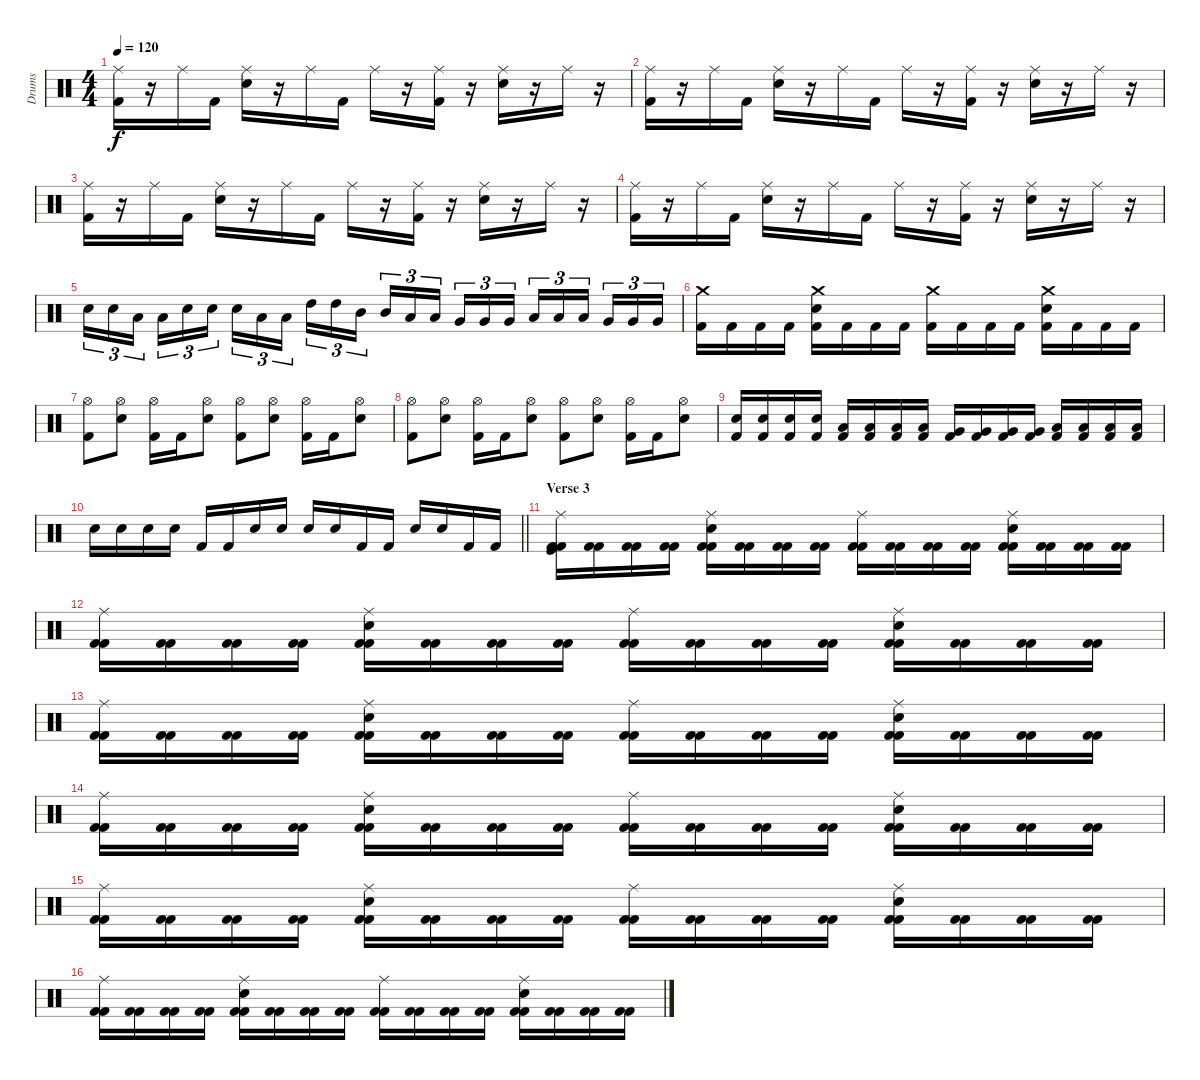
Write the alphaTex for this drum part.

\track ("Drums" "Drums") {instrument percussion}
\staff {score}
\articulation defaults
\ts (4 4)
\tempo 120
\clef neutral
\ks c
("Ride (middle)" "Kick (hit) 2").16{dy f} r.16 "Ride (middle)".16 "Kick (hit) 2".16 ("Ride (middle)" "Electric Snare (hit)").16 r.16 "Ride (middle)".16 "Kick (hit) 2".16 "Ride (middle)".16 r.16 ("Ride (middle)" "Kick (hit) 2").16 r.16 ("Ride (middle)" "Electric Snare (hit)").16 r.16 "Ride (middle)".16 r.16 |
("Ride (middle)" "Kick (hit) 2").16 r.16 "Ride (middle)".16 "Kick (hit) 2".16 ("Ride (middle)" "Electric Snare (hit)").16 r.16 "Ride (middle)".16 "Kick (hit) 2".16 "Ride (middle)".16 r.16 ("Ride (middle)" "Kick (hit) 2").16 r.16 ("Ride (middle)" "Electric Snare (hit)").16 r.16 "Ride (middle)".16 r.16 |
("Ride (middle)" "Kick (hit) 2").16 r.16 "Ride (middle)".16 "Kick (hit) 2".16 ("Ride (middle)" "Electric Snare (hit)").16 r.16 "Ride (middle)".16 "Kick (hit) 2".16 "Ride (middle)".16 r.16 ("Ride (middle)" "Kick (hit) 2").16 r.16 ("Ride (middle)" "Electric Snare (hit)").16 r.16 "Ride (middle)".16 r.16 |
("Ride (middle)" "Kick (hit) 2").16 r.16 "Ride (middle)".16 "Kick (hit) 2".16 ("Ride (middle)" "Electric Snare (hit)").16 r.16 "Ride (middle)".16 "Kick (hit) 2".16 "Ride (middle)".16 r.16 ("Ride (middle)" "Kick (hit) 2").16 r.16 ("Ride (middle)" "Electric Snare (hit)").16 r.16 "Ride (middle)".16 r.16 |
"Electric Snare (hit)".16{tu (3 2)} "Electric Snare (hit)".16{tu (3 2)} "Low Tom (hit)".16{tu (3 2) beam splitsecondary} "Low Tom (hit)".16{tu (3 2)} "Electric Snare (hit)".16{tu (3 2)} "Electric Snare (hit)".16{tu (3 2)} "Electric Snare (hit)".16{tu (3 2)} "Low Tom (hit)".16{tu (3 2)} "Low Tom (hit)".16{tu (3 2) beam splitsecondary} "High Tom (hit)".16{tu (3 2)} "High Tom (hit)".16{tu (3 2)} "Mid Tom (hit)".16{tu (3 2)} "Mid Tom (hit)".16{tu (3 2)} "Low Tom (hit)".16{tu (3 2)} "Low Tom (hit)".16{tu (3 2) beam splitsecondary} "Very Low Tom (hit)".16{tu (3 2)} "Very Low Tom (hit)".16{tu (3 2)} "Very Low Tom (hit)".16{tu (3 2)} "Low Floor Tom (hit)".16{tu (3 2)} "Low Floor Tom (hit)".16{tu (3 2)} "Low Floor Tom (hit)".16{tu (3 2) beam splitsecondary} "Very Low Tom (hit)".16{tu (3 2)} "Very Low Tom (hit)".16{tu (3 2)} "Very Low Tom (hit)".16{tu (3 2)} |
("Crash medium (hit)" "Kick (hit) 2").16 "Kick (hit) 2".16 "Kick (hit) 2".16 "Kick (hit) 2".16 ("Crash medium (hit)" "Electric Snare (hit)" "Kick (hit) 2").16 "Kick (hit) 2".16 "Kick (hit) 2".16 "Kick (hit) 2".16 ("Crash medium (hit)" "Kick (hit) 2").16 "Kick (hit) 2".16 "Kick (hit) 2".16 "Kick (hit) 2".16 ("Crash medium (hit)" "Electric Snare (hit)" "Kick (hit) 2").16 "Kick (hit) 2".16 "Kick (hit) 2".16 "Kick (hit) 2".16 |
\ks aminor
("Kick (hit) 2" "Hi-Hat (open)").8 ("Snare (hit) 2" "Hi-Hat (open)").8 ("Kick (hit) 2" "Hi-Hat (open)").16 "Kick (hit) 2".16 ("Snare (hit) 2" "Hi-Hat (open)").8 ("Kick (hit) 2" "Hi-Hat (open)").8 ("Snare (hit) 2" "Hi-Hat (open)").8 ("Kick (hit) 2" "Hi-Hat (open)").16 "Kick (hit) 2".16 ("Snare (hit) 2" "Hi-Hat (open)").8 |
("Kick (hit) 2" "Hi-Hat (open)").8 ("Snare (hit) 2" "Hi-Hat (open)").8 ("Kick (hit) 2" "Hi-Hat (open)").16 "Kick (hit) 2".16 ("Snare (hit) 2" "Hi-Hat (open)").8 ("Kick (hit) 2" "Hi-Hat (open)").8 ("Snare (hit) 2" "Hi-Hat (open)").8 ("Kick (hit) 2" "Hi-Hat (open)").16 "Kick (hit) 2".16 ("Snare (hit) 2" "Hi-Hat (open)").8 |
("Kick (hit) 2" "Snare (hit) 2").16 ("Kick (hit) 2" "Snare (hit) 2").16 ("Kick (hit) 2" "Snare (hit) 2").16 ("Kick (hit) 2" "Snare (hit) 2").16 ("Kick (hit) 2" "Low Tom (hit)").16 ("Kick (hit) 2" "Low Tom (hit)").16 ("Kick (hit) 2" "Low Tom (hit)").16 ("Kick (hit) 2" "Low Tom (hit)").16 ("Kick (hit) 2" "Very Low Tom (hit)").16 ("Kick (hit) 2" "Very Low Tom (hit)").16 ("Kick (hit) 2" "Very Low Tom (hit)").16 ("Kick (hit) 2" "Very Low Tom (hit)").16 ("Kick (hit) 2" "Low Floor Tom (hit)").16 ("Kick (hit) 2" "Low Floor Tom (hit)").16 ("Kick (hit) 2" "Low Floor Tom (hit)").16 ("Kick (hit) 2" "Low Floor Tom (hit)").16 |
\barLineRight lightlight "Snare (hit) 2".16 "Snare (hit) 2".16 "Snare (hit) 2".16 "Snare (hit) 2".16 "Kick (hit) 2".16 "Kick (hit) 2".16 "Snare (hit) 2".16 "Snare (hit) 2".16 "Snare (hit) 2".16 "Snare (hit) 2".16 "Kick (hit) 2".16 "Kick (hit) 2".16 "Snare (hit) 2".16 "Snare (hit) 2".16 "Kick (hit) 2".16 "Kick (hit) 2".16
|
\section ("" "Verse 3")
\ks c
("Kick (hit) 2" "Ride (middle)" "Kick (hit)" "Kick (hit) 2").16 ("Kick (hit) 2" "Kick (hit) 2").16 ("Kick (hit) 2" "Kick (hit) 2").16 ("Kick (hit) 2" "Kick (hit) 2").16 ("Kick (hit) 2" "Ride (middle)" "Electric Snare (hit)" "Kick (hit) 2").16 ("Kick (hit) 2" "Kick (hit) 2").16 ("Kick (hit) 2" "Kick (hit) 2").16 ("Kick (hit) 2" "Kick (hit) 2").16 ("Kick (hit) 2" "Ride (middle)" "Kick (hit) 2").16 ("Kick (hit) 2" "Kick (hit) 2").16 ("Kick (hit) 2" "Kick (hit) 2").16 ("Kick (hit) 2" "Kick (hit) 2").16 ("Kick (hit) 2" "Ride (middle)" "Electric Snare (hit)" "Kick (hit) 2").16 ("Kick (hit) 2" "Kick (hit) 2").16 ("Kick (hit) 2" "Kick (hit) 2").16 ("Kick (hit) 2" "Kick (hit) 2").16 |
("Kick (hit) 2" "Ride (middle)" "Kick (hit) 2").16 ("Kick (hit) 2" "Kick (hit) 2").16 ("Kick (hit) 2" "Kick (hit) 2").16 ("Kick (hit) 2" "Kick (hit) 2").16 ("Kick (hit) 2" "Ride (middle)" "Electric Snare (hit)" "Kick (hit) 2").16 ("Kick (hit) 2" "Kick (hit) 2").16 ("Kick (hit) 2" "Kick (hit) 2").16 ("Kick (hit) 2" "Kick (hit) 2").16 ("Kick (hit) 2" "Ride (middle)" "Kick (hit) 2").16 ("Kick (hit) 2" "Kick (hit) 2").16 ("Kick (hit) 2" "Kick (hit) 2").16 ("Kick (hit) 2" "Kick (hit) 2").16 ("Kick (hit) 2" "Ride (middle)" "Electric Snare (hit)" "Kick (hit) 2").16 ("Kick (hit) 2" "Kick (hit) 2").16 ("Kick (hit) 2" "Kick (hit) 2").16 ("Kick (hit) 2" "Kick (hit) 2").16 |
("Kick (hit) 2" "Ride (middle)" "Kick (hit) 2").16 ("Kick (hit) 2" "Kick (hit) 2").16 ("Kick (hit) 2" "Kick (hit) 2").16 ("Kick (hit) 2" "Kick (hit) 2").16 ("Kick (hit) 2" "Ride (middle)" "Electric Snare (hit)" "Kick (hit) 2").16 ("Kick (hit) 2" "Kick (hit) 2").16 ("Kick (hit) 2" "Kick (hit) 2").16 ("Kick (hit) 2" "Kick (hit) 2").16 ("Kick (hit) 2" "Ride (middle)" "Kick (hit) 2").16 ("Kick (hit) 2" "Kick (hit) 2").16 ("Kick (hit) 2" "Kick (hit) 2").16 ("Kick (hit) 2" "Kick (hit) 2").16 ("Kick (hit) 2" "Ride (middle)" "Electric Snare (hit)" "Kick (hit) 2").16 ("Kick (hit) 2" "Kick (hit) 2").16 ("Kick (hit) 2" "Kick (hit) 2").16 ("Kick (hit) 2" "Kick (hit) 2").16 |
("Kick (hit) 2" "Ride (middle)" "Kick (hit) 2").16 ("Kick (hit) 2" "Kick (hit) 2").16 ("Kick (hit) 2" "Kick (hit) 2").16 ("Kick (hit) 2" "Kick (hit) 2").16 ("Kick (hit) 2" "Ride (middle)" "Electric Snare (hit)" "Kick (hit) 2").16 ("Kick (hit) 2" "Kick (hit) 2").16 ("Kick (hit) 2" "Kick (hit) 2").16 ("Kick (hit) 2" "Kick (hit) 2").16 ("Kick (hit) 2" "Ride (middle)" "Kick (hit) 2").16 ("Kick (hit) 2" "Kick (hit) 2").16 ("Kick (hit) 2" "Kick (hit) 2").16 ("Kick (hit) 2" "Kick (hit) 2").16 ("Kick (hit) 2" "Ride (middle)" "Electric Snare (hit)" "Kick (hit) 2").16 ("Kick (hit) 2" "Kick (hit) 2").16 ("Kick (hit) 2" "Kick (hit) 2").16 ("Kick (hit) 2" "Kick (hit) 2").16 |
("Kick (hit) 2" "Ride (middle)" "Kick (hit) 2").16 ("Kick (hit) 2" "Kick (hit) 2").16 ("Kick (hit) 2" "Kick (hit) 2").16 ("Kick (hit) 2" "Kick (hit) 2").16 ("Kick (hit) 2" "Ride (middle)" "Electric Snare (hit)" "Kick (hit) 2").16 ("Kick (hit) 2" "Kick (hit) 2").16 ("Kick (hit) 2" "Kick (hit) 2").16 ("Kick (hit) 2" "Kick (hit) 2").16 ("Kick (hit) 2" "Ride (middle)" "Kick (hit) 2").16 ("Kick (hit) 2" "Kick (hit) 2").16 ("Kick (hit) 2" "Kick (hit) 2").16 ("Kick (hit) 2" "Kick (hit) 2").16 ("Kick (hit) 2" "Ride (middle)" "Electric Snare (hit)" "Kick (hit) 2").16 ("Kick (hit) 2" "Kick (hit) 2").16 ("Kick (hit) 2" "Kick (hit) 2").16 ("Kick (hit) 2" "Kick (hit) 2").16 |
("Kick (hit) 2" "Ride (middle)" "Kick (hit) 2").16 ("Kick (hit) 2" "Kick (hit) 2").16 ("Kick (hit) 2" "Kick (hit) 2").16 ("Kick (hit) 2" "Kick (hit) 2").16 ("Kick (hit) 2" "Ride (middle)" "Electric Snare (hit)" "Kick (hit) 2").16 ("Kick (hit) 2" "Kick (hit) 2").16 ("Kick (hit) 2" "Kick (hit) 2").16 ("Kick (hit) 2" "Kick (hit) 2").16 ("Kick (hit) 2" "Ride (middle)" "Kick (hit) 2").16 ("Kick (hit) 2" "Kick (hit) 2").16 ("Kick (hit) 2" "Kick (hit) 2").16 ("Kick (hit) 2" "Kick (hit) 2").16 ("Kick (hit) 2" "Ride (middle)" "Electric Snare (hit)" "Kick (hit) 2").16 ("Kick (hit) 2" "Kick (hit) 2").16 ("Kick (hit) 2" "Kick (hit) 2").16 ("Kick (hit) 2" "Kick (hit) 2").16
